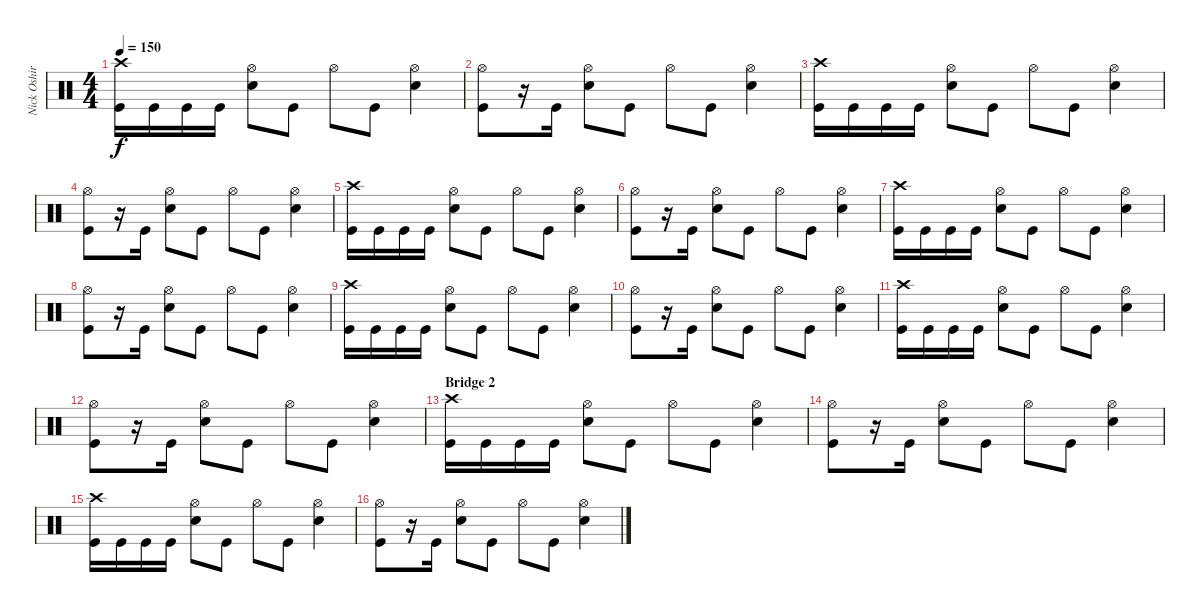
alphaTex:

\track ("Nick Oshiro" "Nick Oshir") {instrument percussion}
\staff {score}
\articulation defaults
\ts (4 4)
\tempo 150
\clef neutral
\ks c
("Crash high (hit)" "Kick (hit)").16{dy f} "Kick (hit)".16 "Kick (hit)".16 "Kick (hit)".16 ("Hi-Hat (open)" "Snare (hit) 2").8 "Kick (hit)".8 "Hi-Hat (open)".8 "Kick (hit)".8 ("Hi-Hat (open)" "Snare (hit) 2").4 |
("Hi-Hat (open)" "Kick (hit)").8 r.16 "Kick (hit)".16 ("Hi-Hat (open)" "Snare (hit) 2").8 "Kick (hit)".8 "Hi-Hat (open)".8 "Kick (hit)".8 ("Hi-Hat (open)" "Snare (hit) 2").4 |
("Crash high (hit)" "Kick (hit)").16 "Kick (hit)".16 "Kick (hit)".16 "Kick (hit)".16 ("Hi-Hat (open)" "Snare (hit) 2").8 "Kick (hit)".8 "Hi-Hat (open)".8 "Kick (hit)".8 ("Hi-Hat (open)" "Snare (hit) 2").4 |
("Hi-Hat (open)" "Kick (hit)").8 r.16 "Kick (hit)".16 ("Hi-Hat (open)" "Snare (hit) 2").8 "Kick (hit)".8 "Hi-Hat (open)".8 "Kick (hit)".8 ("Hi-Hat (open)" "Snare (hit) 2").4 |
("Crash high (hit)" "Kick (hit)").16 "Kick (hit)".16 "Kick (hit)".16 "Kick (hit)".16 ("Hi-Hat (open)" "Snare (hit) 2").8 "Kick (hit)".8 "Hi-Hat (open)".8 "Kick (hit)".8 ("Hi-Hat (open)" "Snare (hit) 2").4 |
("Hi-Hat (open)" "Kick (hit)").8 r.16 "Kick (hit)".16 ("Hi-Hat (open)" "Snare (hit) 2").8 "Kick (hit)".8 "Hi-Hat (open)".8 "Kick (hit)".8 ("Hi-Hat (open)" "Snare (hit) 2").4 |
("Crash high (hit)" "Kick (hit)").16 "Kick (hit)".16 "Kick (hit)".16 "Kick (hit)".16 ("Hi-Hat (open)" "Snare (hit) 2").8 "Kick (hit)".8 "Hi-Hat (open)".8 "Kick (hit)".8 ("Hi-Hat (open)" "Snare (hit) 2").4 |
("Hi-Hat (open)" "Kick (hit)").8 r.16 "Kick (hit)".16 ("Hi-Hat (open)" "Snare (hit) 2").8 "Kick (hit)".8 "Hi-Hat (open)".8 "Kick (hit)".8 ("Hi-Hat (open)" "Snare (hit) 2").4 |
("Crash high (hit)" "Kick (hit)").16 "Kick (hit)".16 "Kick (hit)".16 "Kick (hit)".16 ("Hi-Hat (open)" "Snare (hit) 2").8 "Kick (hit)".8 "Hi-Hat (open)".8 "Kick (hit)".8 ("Hi-Hat (open)" "Snare (hit) 2").4 |
("Hi-Hat (open)" "Kick (hit)").8 r.16 "Kick (hit)".16 ("Hi-Hat (open)" "Snare (hit) 2").8 "Kick (hit)".8 "Hi-Hat (open)".8 "Kick (hit)".8 ("Hi-Hat (open)" "Snare (hit) 2").4 |
("Crash high (hit)" "Kick (hit)").16 "Kick (hit)".16 "Kick (hit)".16 "Kick (hit)".16 ("Hi-Hat (open)" "Snare (hit) 2").8 "Kick (hit)".8 "Hi-Hat (open)".8 "Kick (hit)".8 ("Hi-Hat (open)" "Snare (hit) 2").4 |
("Hi-Hat (open)" "Kick (hit)").8 r.16 "Kick (hit)".16 ("Hi-Hat (open)" "Snare (hit) 2").8 "Kick (hit)".8 "Hi-Hat (open)".8 "Kick (hit)".8 ("Hi-Hat (open)" "Snare (hit) 2").4 |
\section ("" "Bridge 2")
("Crash high (hit)" "Kick (hit)").16 "Kick (hit)".16 "Kick (hit)".16 "Kick (hit)".16 ("Hi-Hat (open)" "Snare (hit) 2").8 "Kick (hit)".8 "Hi-Hat (open)".8 "Kick (hit)".8 ("Hi-Hat (open)" "Snare (hit) 2").4 |
("Hi-Hat (open)" "Kick (hit)").8 r.16 "Kick (hit)".16 ("Hi-Hat (open)" "Snare (hit) 2").8 "Kick (hit)".8 "Hi-Hat (open)".8 "Kick (hit)".8 ("Hi-Hat (open)" "Snare (hit) 2").4 |
("Crash high (hit)" "Kick (hit)").16 "Kick (hit)".16 "Kick (hit)".16 "Kick (hit)".16 ("Hi-Hat (open)" "Snare (hit) 2").8 "Kick (hit)".8 "Hi-Hat (open)".8 "Kick (hit)".8 ("Hi-Hat (open)" "Snare (hit) 2").4 |
("Hi-Hat (open)" "Kick (hit)").8 r.16 "Kick (hit)".16 ("Hi-Hat (open)" "Snare (hit) 2").8 "Kick (hit)".8 "Hi-Hat (open)".8 "Kick (hit)".8 ("Hi-Hat (open)" "Snare (hit) 2").4
